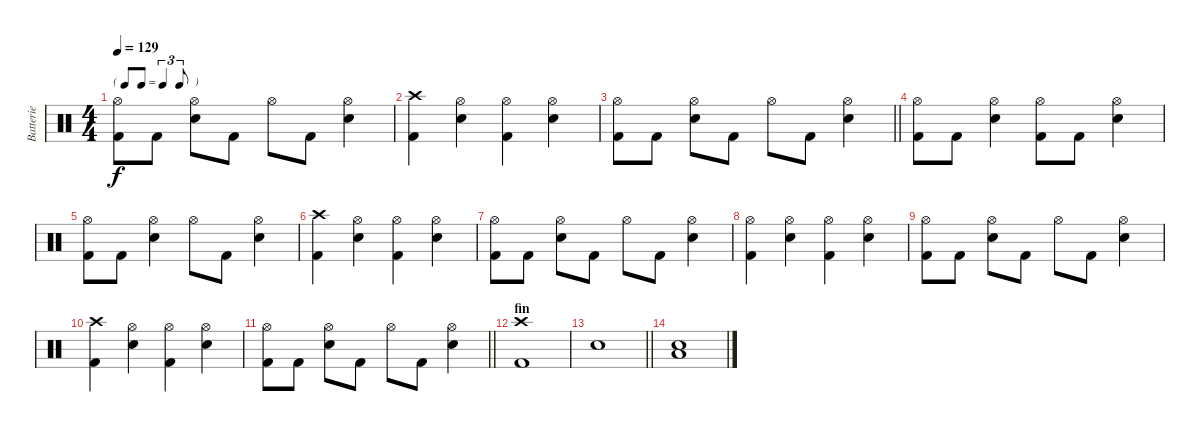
\track ("Batterie" "Batterie") {instrument percussion}
\staff {score}
\articulation defaults
\ts (4 4)
\tf triplet8th
\tempo 129
\clef neutral
\ks c
("Hi-Hat (open)" "Kick (hit) 2").8{dy f} "Kick (hit) 2".8 ("Hi-Hat (open)" "Snare (hit) 2").8 "Kick (hit) 2".8 "Hi-Hat (open)".8 "Kick (hit) 2".8 ("Hi-Hat (open)" "Snare (hit) 2").4 |
("Crash high (hit)" "Kick (hit) 2").4 ("Hi-Hat (open)" "Snare (hit) 2").4 ("Hi-Hat (open)" "Kick (hit) 2").4 ("Hi-Hat (open)" "Snare (hit) 2").4 |
\barLineRight lightlight
("Hi-Hat (open)" "Kick (hit) 2").8 "Kick (hit) 2".8 ("Hi-Hat (open)" "Snare (hit) 2").8 "Kick (hit) 2".8 "Hi-Hat (open)".8 "Kick (hit) 2".8 ("Hi-Hat (open)" "Snare (hit) 2").4 |
("Hi-Hat (open)" "Kick (hit) 2").8 "Kick (hit) 2".8 ("Hi-Hat (open)" "Snare (hit) 2").4 ("Hi-Hat (open)" "Kick (hit) 2").8 "Kick (hit) 2".8 ("Hi-Hat (open)" "Snare (hit) 2").4 |
("Hi-Hat (open)" "Kick (hit) 2").8 "Kick (hit) 2".8 ("Hi-Hat (open)" "Snare (hit) 2").4 "Hi-Hat (open)".8 "Kick (hit) 2".8 ("Hi-Hat (open)" "Snare (hit) 2").4 |
("Crash high (hit)" "Kick (hit) 2").4 ("Hi-Hat (open)" "Snare (hit) 2").4 ("Hi-Hat (open)" "Kick (hit) 2").4 ("Hi-Hat (open)" "Snare (hit) 2").4 |
("Hi-Hat (open)" "Kick (hit) 2").8 "Kick (hit) 2".8 ("Hi-Hat (open)" "Snare (hit) 2").8 "Kick (hit) 2".8 "Hi-Hat (open)".8 "Kick (hit) 2".8 ("Hi-Hat (open)" "Snare (hit) 2").4 |
("Hi-Hat (open)" "Kick (hit) 2").4 ("Hi-Hat (open)" "Snare (hit) 2").4 ("Hi-Hat (open)" "Kick (hit) 2").4 ("Hi-Hat (open)" "Snare (hit) 2").4 |
("Hi-Hat (open)" "Kick (hit) 2").8 "Kick (hit) 2".8 ("Hi-Hat (open)" "Snare (hit) 2").8 "Kick (hit) 2".8 "Hi-Hat (open)".8 "Kick (hit) 2".8 ("Hi-Hat (open)" "Snare (hit) 2").4 |
("Crash high (hit)" "Kick (hit) 2").4 ("Hi-Hat (open)" "Snare (hit) 2").4 ("Hi-Hat (open)" "Kick (hit) 2").4 ("Hi-Hat (open)" "Snare (hit) 2").4 |
\barLineRight lightlight
("Hi-Hat (open)" "Kick (hit) 2").8 "Kick (hit) 2".8 ("Hi-Hat (open)" "Snare (hit) 2").8 "Kick (hit) 2".8 "Hi-Hat (open)".8 "Kick (hit) 2".8 ("Hi-Hat (open)" "Snare (hit) 2").4 |
\section ("" "fin")
("Crash high (hit)" "Kick (hit) 2").1 |
\barLineRight lightlight "Snare (hit) 2".1
|
("Snare (hit) 2" "Low Tom (hit)").1
